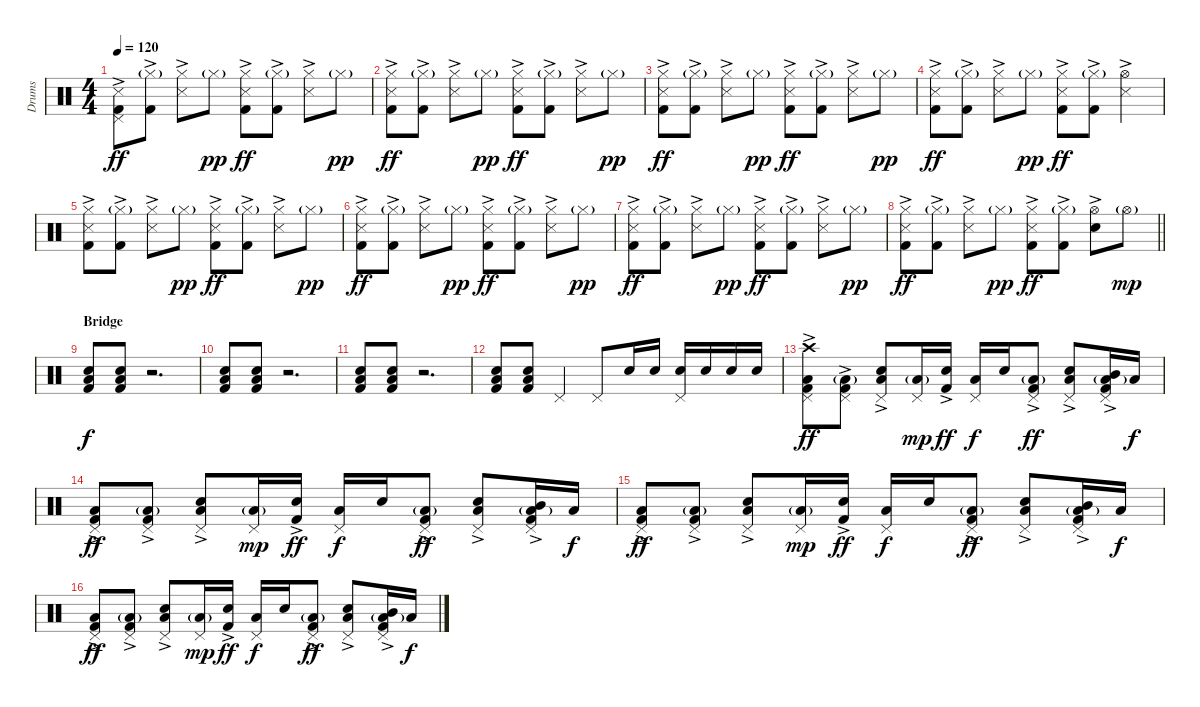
\track ("Drums" "Drums") {instrument percussion}
\staff {score}
\articulation defaults
\ts (4 4)
\tempo 120
\clef neutral
\ks c
("Pedal Hi-Hat (hit)" "Snare (side stick) 3"{ac} "Kick (hit) 2"{ac}).8{dy ff} ("Hi-Hat (closed)"{g} "Kick (hit) 2"{ac}).8 ("Hi-Hat (closed)" "Snare (side stick) 3"{ac}).8 "Hi-Hat (closed)"{g}.8{dy pp} ("Hi-Hat (closed)" "Snare (side stick) 3"{ac} "Kick (hit) 2"{ac}).8{dy ff} ("Hi-Hat (closed)"{g} "Kick (hit) 2"{ac}).8 ("Hi-Hat (closed)" "Snare (side stick) 3"{ac}).8 "Hi-Hat (closed)"{g}.8{dy pp} |
("Hi-Hat (closed)" "Snare (side stick) 3"{ac} "Kick (hit) 2"{ac}).8{dy ff} ("Hi-Hat (closed)"{g} "Kick (hit) 2"{ac}).8 ("Hi-Hat (closed)" "Snare (side stick) 3"{ac}).8 "Hi-Hat (closed)"{g}.8{dy pp} ("Hi-Hat (closed)" "Snare (side stick) 3"{ac} "Kick (hit) 2"{ac}).8{dy ff} ("Hi-Hat (closed)"{g} "Kick (hit) 2"{ac}).8 ("Hi-Hat (closed)" "Snare (side stick) 3"{ac}).8 "Hi-Hat (closed)"{g}.8{dy pp} |
("Hi-Hat (closed)" "Snare (side stick) 3"{ac} "Kick (hit) 2"{ac}).8{dy ff} ("Hi-Hat (closed)"{g} "Kick (hit) 2"{ac}).8 ("Hi-Hat (closed)" "Snare (side stick) 3"{ac}).8 "Hi-Hat (closed)"{g}.8{dy pp} ("Hi-Hat (closed)" "Snare (side stick) 3"{ac} "Kick (hit) 2"{ac}).8{dy ff} ("Hi-Hat (closed)"{g} "Kick (hit) 2"{ac}).8 ("Hi-Hat (closed)" "Snare (side stick) 3"{ac}).8 "Hi-Hat (closed)"{g}.8{dy pp} |
("Hi-Hat (closed)" "Snare (side stick) 3"{ac} "Kick (hit) 2"{ac}).8{dy ff} ("Hi-Hat (closed)"{g} "Kick (hit) 2"{ac}).8 ("Hi-Hat (closed)" "Snare (side stick) 3"{ac}).8 "Hi-Hat (closed)"{g}.8{dy pp} ("Hi-Hat (closed)" "Snare (side stick) 3"{ac} "Kick (hit) 2"{ac}).8{dy ff} ("Hi-Hat (closed)"{g} "Kick (hit) 2"{ac}).8 ("Hi-Hat (open)" "Snare (side stick) 3"{ac}).4 |
("Hi-Hat (closed)" "Snare (side stick) 3"{ac} "Kick (hit) 2"{ac}).8 ("Hi-Hat (closed)"{g} "Kick (hit) 2"{ac}).8 ("Hi-Hat (closed)" "Snare (side stick) 3"{ac}).8 "Hi-Hat (closed)"{g}.8{dy pp} ("Hi-Hat (closed)" "Snare (side stick) 3"{ac} "Kick (hit) 2"{ac}).8{dy ff} ("Hi-Hat (closed)"{g} "Kick (hit) 2"{ac}).8 ("Hi-Hat (closed)" "Snare (side stick) 3"{ac}).8 "Hi-Hat (closed)"{g}.8{dy pp} |
("Hi-Hat (closed)" "Snare (side stick) 3"{ac} "Kick (hit) 2"{ac}).8{dy ff} ("Hi-Hat (closed)"{g} "Kick (hit) 2"{ac}).8 ("Hi-Hat (closed)" "Snare (side stick) 3"{ac}).8 "Hi-Hat (closed)"{g}.8{dy pp} ("Hi-Hat (closed)" "Snare (side stick) 3"{ac} "Kick (hit) 2"{ac}).8{dy ff} ("Hi-Hat (closed)"{g} "Kick (hit) 2"{ac}).8 ("Hi-Hat (closed)" "Snare (side stick) 3"{ac}).8 "Hi-Hat (closed)"{g}.8{dy pp} |
("Hi-Hat (closed)" "Snare (side stick) 3"{ac} "Kick (hit) 2"{ac}).8{dy ff} ("Hi-Hat (closed)"{g} "Kick (hit) 2"{ac}).8 ("Hi-Hat (closed)" "Snare (side stick) 3"{ac}).8 "Hi-Hat (closed)"{g}.8{dy pp} ("Hi-Hat (closed)" "Snare (side stick) 3"{ac} "Kick (hit) 2"{ac}).8{dy ff} ("Hi-Hat (closed)"{g} "Kick (hit) 2"{ac}).8 ("Hi-Hat (closed)" "Snare (side stick) 3"{ac}).8 "Hi-Hat (closed)"{g}.8{dy pp} |
\barLineRight lightlight
("Hi-Hat (closed)" "Snare (side stick) 3"{ac} "Kick (hit) 2"{ac}).8{dy ff} ("Hi-Hat (closed)"{g} "Kick (hit) 2"{ac}).8 ("Hi-Hat (closed)" "Snare (side stick) 3"{ac}).8 "Hi-Hat (closed)"{g}.8{dy pp} ("Hi-Hat (closed)" "Snare (side stick) 3"{ac} "Kick (hit) 2"{ac}).8{dy ff} ("Hi-Hat (closed)"{g} "Kick (hit) 2"{ac}).8 ("Hi-Hat (open)" "Snare (hit) 2"{ac}).8 "Hi-Hat (open)"{g}.8{dy mp} |
\section ("" "Bridge")
("Snare (hit) 2" "Low Floor Tom (hit)" "Kick (hit) 2").8{dy f} ("Snare (hit) 2" "Low Floor Tom (hit)" "Kick (hit) 2").8 r.2{d} |
("Snare (hit) 2" "Low Floor Tom (hit)" "Kick (hit) 2").8 ("Snare (hit) 2" "Low Floor Tom (hit)" "Kick (hit) 2").8 r.2{d} |
("Snare (hit) 2" "Low Floor Tom (hit)" "Kick (hit) 2").8 ("Snare (hit) 2" "Low Floor Tom (hit)" "Kick (hit) 2").8 r.2{d} |
("Snare (hit) 2" "Low Floor Tom (hit)" "Kick (hit) 2").8 ("Snare (hit) 2" "Low Floor Tom (hit)" "Kick (hit) 2").8 "Pedal Hi-Hat (hit)".4 "Pedal Hi-Hat (hit)".8 "Snare (hit) 2".16 "Snare (hit) 2".16 ("Pedal Hi-Hat (hit)" "Snare (hit) 2").16 "Snare (hit) 2".16 "Snare (hit) 2".16 "Snare (hit) 2".16 |
("Pedal Hi-Hat (hit)" "Crash high (hit)" "Low Floor Tom (hit)" "Kick (hit) 2"{ac}).8{dy ff} ("Pedal Hi-Hat (hit)" "Low Floor Tom (hit)"{g} "Kick (hit) 2"{ac}).8 ("Pedal Hi-Hat (hit)" "Snare (hit) 2"{ac} "Low Floor Tom (hit)").8 ("Pedal Hi-Hat (hit)" "Low Floor Tom (hit)"{g}).16{dy mp} ("Snare (hit) 2" "Kick (hit) 2"{ac}).16{dy ff} ("Pedal Hi-Hat (hit)" "Low Floor Tom (hit)").16{dy f} "Snare (hit) 2".16 ("Pedal Hi-Hat (hit)" "Low Floor Tom (hit)"{g} "Kick (hit) 2"{ac}).8{dy ff} ("Pedal Hi-Hat (hit)" "Snare (hit) 2"{ac} "Low Floor Tom (hit)").8 ("Pedal Hi-Hat (hit)" "Mid Tom (hit)" "Low Floor Tom (hit)"{g} "Kick (hit) 2"{ac}).16 "Low Tom (hit)".16{dy f} |
("Pedal Hi-Hat (hit)" "Low Floor Tom (hit)" "Kick (hit) 2"{ac}).8{dy ff} ("Pedal Hi-Hat (hit)" "Low Floor Tom (hit)"{g} "Kick (hit) 2"{ac}).8 ("Pedal Hi-Hat (hit)" "Snare (hit) 2"{ac} "Low Floor Tom (hit)").8 ("Pedal Hi-Hat (hit)" "Low Floor Tom (hit)"{g}).16{dy mp} ("Snare (hit) 2" "Kick (hit) 2"{ac}).16{dy ff} ("Pedal Hi-Hat (hit)" "Low Floor Tom (hit)").16{dy f} "Snare (hit) 2".16 ("Pedal Hi-Hat (hit)" "Low Floor Tom (hit)"{g} "Kick (hit) 2"{ac}).8{dy ff} ("Pedal Hi-Hat (hit)" "Snare (hit) 2"{ac} "Low Floor Tom (hit)").8 ("Pedal Hi-Hat (hit)" "Mid Tom (hit)" "Low Floor Tom (hit)"{g} "Kick (hit) 2"{ac}).16 "Low Tom (hit)".16{dy f} |
("Pedal Hi-Hat (hit)" "Low Floor Tom (hit)" "Kick (hit) 2"{ac}).8{dy ff} ("Pedal Hi-Hat (hit)" "Low Floor Tom (hit)"{g} "Kick (hit) 2"{ac}).8 ("Pedal Hi-Hat (hit)" "Snare (hit) 2"{ac} "Low Floor Tom (hit)").8 ("Pedal Hi-Hat (hit)" "Low Floor Tom (hit)"{g}).16{dy mp} ("Snare (hit) 2" "Kick (hit) 2"{ac}).16{dy ff} ("Pedal Hi-Hat (hit)" "Low Floor Tom (hit)").16{dy f} "Snare (hit) 2".16 ("Pedal Hi-Hat (hit)" "Low Floor Tom (hit)"{g} "Kick (hit) 2"{ac}).8{dy ff} ("Pedal Hi-Hat (hit)" "Snare (hit) 2"{ac} "Low Floor Tom (hit)").8 ("Pedal Hi-Hat (hit)" "Mid Tom (hit)" "Low Floor Tom (hit)"{g} "Kick (hit) 2"{ac}).16 "Low Tom (hit)".16{dy f} |
("Pedal Hi-Hat (hit)" "Low Floor Tom (hit)" "Kick (hit) 2"{ac}).8{dy ff} ("Pedal Hi-Hat (hit)" "Low Floor Tom (hit)"{g} "Kick (hit) 2"{ac}).8 ("Pedal Hi-Hat (hit)" "Snare (hit) 2"{ac} "Low Floor Tom (hit)").8 ("Pedal Hi-Hat (hit)" "Low Floor Tom (hit)"{g}).16{dy mp} ("Snare (hit) 2" "Kick (hit) 2"{ac}).16{dy ff} ("Pedal Hi-Hat (hit)" "Low Floor Tom (hit)").16{dy f} "Snare (hit) 2".16 ("Pedal Hi-Hat (hit)" "Low Floor Tom (hit)"{g} "Kick (hit) 2"{ac}).8{dy ff} ("Pedal Hi-Hat (hit)" "Snare (hit) 2"{ac} "Low Floor Tom (hit)").8 ("Pedal Hi-Hat (hit)" "Mid Tom (hit)" "Low Floor Tom (hit)"{g} "Kick (hit) 2"{ac}).16 "Low Tom (hit)".16{dy f}
